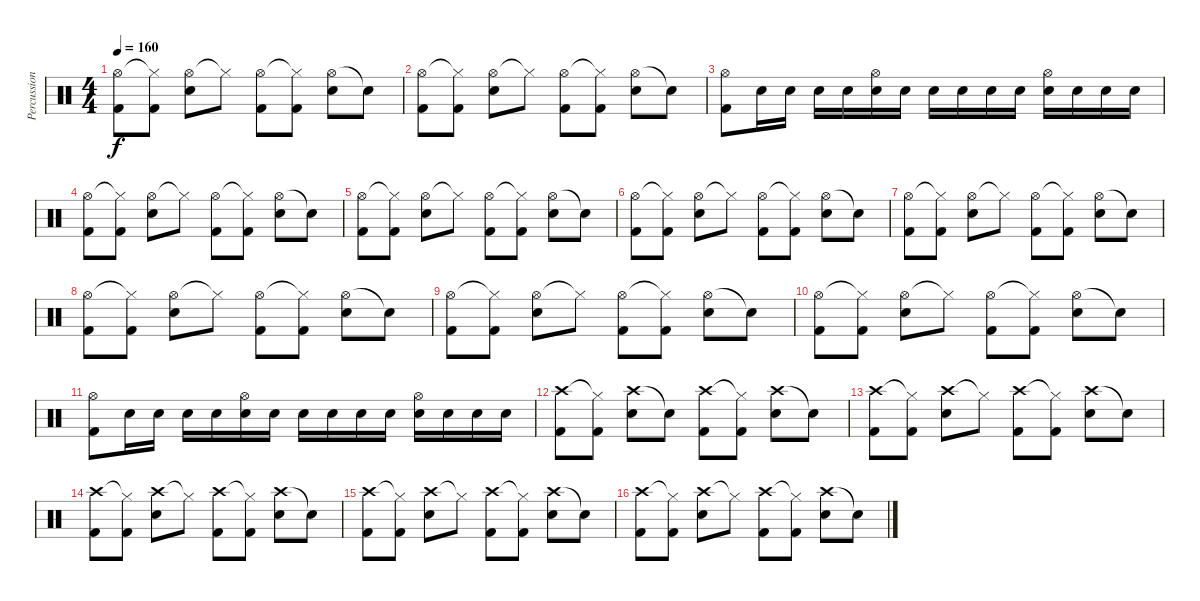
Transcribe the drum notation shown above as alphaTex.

\track ("Percussions" "Percussion") {instrument percussion}
\staff {score}
\articulation defaults
\ts (4 4)
\tempo 160
\clef neutral
\ks c
("Hi-Hat (open)" "Kick (hit) 2").8{dy f} ("Hi-Hat (closed)"{t} "Kick (hit) 2").8 ("Hi-Hat (open)" "Snare (hit) 2").8 "Hi-Hat (closed)"{t}.8 ("Hi-Hat (open)" "Kick (hit) 2").8 ("Hi-Hat (closed)"{t} "Kick (hit) 2").8 ("Hi-Hat (open)" "Snare (hit) 2").8 "Snare (hit)"{t}.8 |
("Hi-Hat (open)" "Kick (hit) 2").8 ("Hi-Hat (closed)"{t} "Kick (hit) 2").8 ("Hi-Hat (open)" "Snare (hit) 2").8 "Hi-Hat (closed)"{t}.8 ("Hi-Hat (open)" "Kick (hit) 2").8 ("Hi-Hat (closed)"{t} "Kick (hit) 2").8 ("Hi-Hat (open)" "Snare (hit) 2").8 "Snare (hit)"{t}.8 |
("Hi-Hat (open)" "Kick (hit) 2").8 "Snare (hit) 2".16 "Snare (hit) 2".16 "Snare (hit) 2".16 "Snare (hit) 2".16 ("Hi-Hat (open)" "Snare (hit) 2").16 "Snare (hit) 2".16 "Snare (hit) 2".16 "Snare (hit) 2".16 "Snare (hit) 2".16 "Snare (hit) 2".16 ("Hi-Hat (open)" "Snare (hit) 2").16 "Snare (hit) 2".16 "Snare (hit) 2".16 "Snare (hit) 2".16 |
("Hi-Hat (open)" "Kick (hit) 2").8 ("Hi-Hat (closed)"{t} "Kick (hit) 2").8 ("Hi-Hat (open)" "Snare (hit) 2").8 "Hi-Hat (closed)"{t}.8 ("Hi-Hat (open)" "Kick (hit) 2").8 ("Hi-Hat (closed)"{t} "Kick (hit) 2").8 ("Hi-Hat (open)" "Snare (hit) 2").8 "Snare (hit)"{t}.8 |
("Hi-Hat (open)" "Kick (hit) 2").8 ("Hi-Hat (closed)"{t} "Kick (hit) 2").8 ("Hi-Hat (open)" "Snare (hit) 2").8 "Hi-Hat (closed)"{t}.8 ("Hi-Hat (open)" "Kick (hit) 2").8 ("Hi-Hat (closed)"{t} "Kick (hit) 2").8 ("Hi-Hat (open)" "Snare (hit) 2").8 "Snare (hit)"{t}.8 |
("Hi-Hat (open)" "Kick (hit) 2").8 ("Hi-Hat (closed)"{t} "Kick (hit) 2").8 ("Hi-Hat (open)" "Snare (hit) 2").8 "Hi-Hat (closed)"{t}.8 ("Hi-Hat (open)" "Kick (hit) 2").8 ("Hi-Hat (closed)"{t} "Kick (hit) 2").8 ("Hi-Hat (open)" "Snare (hit) 2").8 "Snare (hit)"{t}.8 |
("Hi-Hat (open)" "Kick (hit) 2").8 ("Hi-Hat (closed)"{t} "Kick (hit) 2").8 ("Hi-Hat (open)" "Snare (hit) 2").8 "Hi-Hat (closed)"{t}.8 ("Hi-Hat (open)" "Kick (hit) 2").8 ("Hi-Hat (closed)"{t} "Kick (hit) 2").8 ("Hi-Hat (open)" "Snare (hit) 2").8 "Snare (hit)"{t}.8 |
("Hi-Hat (open)" "Kick (hit) 2").8 ("Hi-Hat (closed)"{t} "Kick (hit) 2").8 ("Hi-Hat (open)" "Snare (hit) 2").8 "Hi-Hat (closed)"{t}.8 ("Hi-Hat (open)" "Kick (hit) 2").8 ("Hi-Hat (closed)"{t} "Kick (hit) 2").8 ("Hi-Hat (open)" "Snare (hit) 2").8 "Snare (hit)"{t}.8 |
("Hi-Hat (open)" "Kick (hit) 2").8 ("Hi-Hat (closed)"{t} "Kick (hit) 2").8 ("Hi-Hat (open)" "Snare (hit) 2").8 "Hi-Hat (closed)"{t}.8 ("Hi-Hat (open)" "Kick (hit) 2").8 ("Hi-Hat (closed)"{t} "Kick (hit) 2").8 ("Hi-Hat (open)" "Snare (hit) 2").8 "Snare (hit)"{t}.8 |
("Hi-Hat (open)" "Kick (hit) 2").8 ("Hi-Hat (closed)"{t} "Kick (hit) 2").8 ("Hi-Hat (open)" "Snare (hit) 2").8 "Hi-Hat (closed)"{t}.8 ("Hi-Hat (open)" "Kick (hit) 2").8 ("Hi-Hat (closed)"{t} "Kick (hit) 2").8 ("Hi-Hat (open)" "Snare (hit) 2").8 "Snare (hit)"{t}.8 |
("Hi-Hat (open)" "Kick (hit) 2").8 "Snare (hit) 2".16 "Snare (hit) 2".16 "Snare (hit) 2".16 "Snare (hit) 2".16 ("Hi-Hat (open)" "Snare (hit) 2").16 "Snare (hit) 2".16 "Snare (hit) 2".16 "Snare (hit) 2".16 "Snare (hit) 2".16 "Snare (hit) 2".16 ("Hi-Hat (open)" "Snare (hit) 2").16 "Snare (hit) 2".16 "Snare (hit) 2".16 "Snare (hit) 2".16 |
("Crash high (hit)" "Kick (hit) 2").8 ("Hi-Hat (closed)"{t} "Kick (hit) 2").8 ("Crash high (hit)" "Snare (hit) 2").8 "Snare (hit)"{t}.8 ("Crash high (hit)" "Kick (hit) 2").8 ("Hi-Hat (closed)"{t} "Kick (hit) 2").8 ("Crash high (hit)" "Snare (hit) 2").8 "Snare (hit)"{t}.8 |
("Crash high (hit)" "Kick (hit) 2").8 ("Hi-Hat (closed)"{t} "Kick (hit) 2").8 ("Crash high (hit)" "Snare (hit) 2").8 "Hi-Hat (closed)"{t}.8 ("Crash high (hit)" "Kick (hit) 2").8 ("Hi-Hat (closed)"{t} "Kick (hit) 2").8 ("Crash high (hit)" "Snare (hit) 2").8 "Snare (hit)"{t}.8 |
("Crash high (hit)" "Kick (hit) 2").8 ("Hi-Hat (closed)"{t} "Kick (hit) 2").8 ("Crash high (hit)" "Snare (hit) 2").8 "Hi-Hat (closed)"{t}.8 ("Crash high (hit)" "Kick (hit) 2").8 ("Hi-Hat (closed)"{t} "Kick (hit) 2").8 ("Crash high (hit)" "Snare (hit) 2").8 "Snare (hit)"{t}.8 |
("Crash high (hit)" "Kick (hit) 2").8 ("Hi-Hat (closed)"{t} "Kick (hit) 2").8 ("Crash high (hit)" "Snare (hit) 2").8 "Hi-Hat (closed)"{t}.8 ("Crash high (hit)" "Kick (hit) 2").8 ("Hi-Hat (closed)"{t} "Kick (hit) 2").8 ("Crash high (hit)" "Snare (hit) 2").8 "Snare (hit)"{t}.8 |
("Crash high (hit)" "Kick (hit) 2").8 ("Hi-Hat (closed)"{t} "Kick (hit) 2").8 ("Crash high (hit)" "Snare (hit) 2").8 "Hi-Hat (closed)"{t}.8 ("Crash high (hit)" "Kick (hit) 2").8 ("Hi-Hat (closed)"{t} "Kick (hit) 2").8 ("Crash high (hit)" "Snare (hit) 2").8 "Snare (hit)"{t}.8
